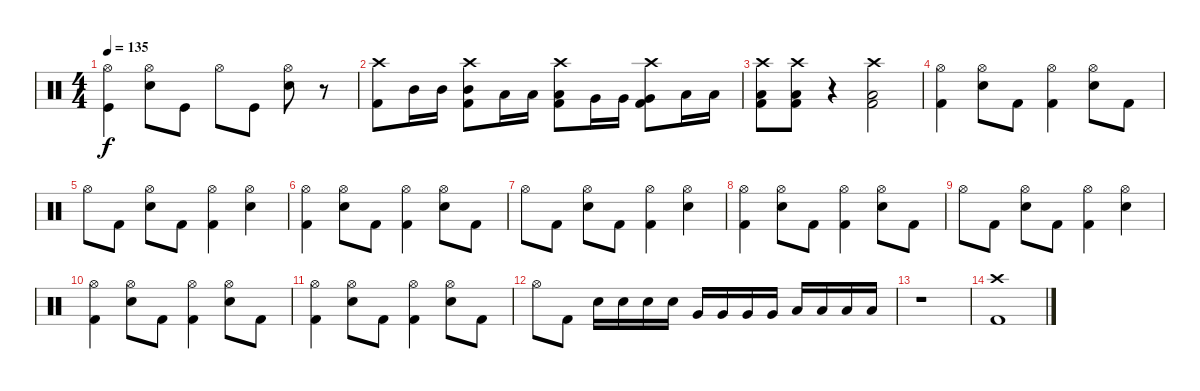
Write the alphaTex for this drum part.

\track "" {instrument percussion}
\staff {score}
\articulation defaults
\ts (4 4)
\tempo 135
\clef neutral
\ks c
("Kick (hit)" "Hi-Hat (open)").4{dy f} ("Snare (hit) 2" "Hi-Hat (open)").8 "Kick (hit)".8 "Hi-Hat (open)".8 "Kick (hit)".8 ("Snare (hit) 2" "Hi-Hat (open)").8 r.8 |
("Crash high (hit)" "Kick (hit) 2").8 "Mid Tom (hit)".16 "Mid Tom (hit)".16 ("Crash high (hit)" "Mid Tom (hit)" "Kick (hit) 2").8 "Low Tom (hit)".16 "Low Tom (hit)".16 ("Crash high (hit)" "Low Tom (hit)" "Kick (hit) 2").8 "Very Low Tom (hit)".16 "Very Low Tom (hit)".16 ("Crash high (hit)" "Very Low Tom (hit)" "Kick (hit) 2").8 "Low Floor Tom (hit)".16 "Low Floor Tom (hit)".16 |
("Crash high (hit)" "Low Floor Tom (hit)" "Kick (hit) 2").8 ("Crash high (hit)" "Low Floor Tom (hit)" "Kick (hit) 2").8 r.4 ("Crash high (hit)" "Low Floor Tom (hit)" "Kick (hit) 2").2 |
("Hi-Hat (open)" "Kick (hit) 2").4 ("Hi-Hat (open)" "Electric Snare (hit)").8 "Kick (hit) 2".8 ("Hi-Hat (open)" "Kick (hit) 2").4 ("Hi-Hat (open)" "Electric Snare (hit)").8 "Kick (hit) 2".8 |
"Hi-Hat (open)".8 "Kick (hit) 2".8 ("Hi-Hat (open)" "Electric Snare (hit)").8 "Kick (hit) 2".8 ("Hi-Hat (open)" "Kick (hit) 2").4 ("Hi-Hat (open)" "Electric Snare (hit)").4 |
("Hi-Hat (open)" "Kick (hit) 2").4 ("Hi-Hat (open)" "Electric Snare (hit)").8 "Kick (hit) 2".8 ("Hi-Hat (open)" "Kick (hit) 2").4 ("Hi-Hat (open)" "Electric Snare (hit)").8 "Kick (hit) 2".8 |
"Hi-Hat (open)".8 "Kick (hit) 2".8 ("Hi-Hat (open)" "Electric Snare (hit)").8 "Kick (hit) 2".8 ("Hi-Hat (open)" "Kick (hit) 2").4 ("Hi-Hat (open)" "Electric Snare (hit)").4 |
("Hi-Hat (open)" "Kick (hit) 2").4 ("Hi-Hat (open)" "Electric Snare (hit)").8 "Kick (hit) 2".8 ("Hi-Hat (open)" "Kick (hit) 2").4 ("Hi-Hat (open)" "Electric Snare (hit)").8 "Kick (hit) 2".8 |
"Hi-Hat (open)".8 "Kick (hit) 2".8 ("Hi-Hat (open)" "Electric Snare (hit)").8 "Kick (hit) 2".8 ("Hi-Hat (open)" "Kick (hit) 2").4 ("Hi-Hat (open)" "Electric Snare (hit)").4 |
("Hi-Hat (open)" "Kick (hit) 2").4 ("Hi-Hat (open)" "Electric Snare (hit)").8 "Kick (hit) 2".8 ("Hi-Hat (open)" "Kick (hit) 2").4 ("Hi-Hat (open)" "Electric Snare (hit)").8 "Kick (hit) 2".8 |
("Hi-Hat (open)" "Kick (hit) 2").4 ("Hi-Hat (open)" "Electric Snare (hit)").8 "Kick (hit) 2".8 ("Hi-Hat (open)" "Kick (hit) 2").4 ("Hi-Hat (open)" "Electric Snare (hit)").8 "Kick (hit) 2".8 |
"Hi-Hat (open)".8 "Kick (hit) 2".8 "Electric Snare (hit)".16 "Electric Snare (hit)".16 "Electric Snare (hit)".16 "Electric Snare (hit)".16 "Very Low Tom (hit)".16 "Very Low Tom (hit)".16 "Very Low Tom (hit)".16 "Very Low Tom (hit)".16 "Low Floor Tom (hit)".16 "Low Floor Tom (hit)".16 "Low Floor Tom (hit)".16 "Low Floor Tom (hit)".16 |
r.1 |
("Crash high (hit)" "Kick (hit) 2").1
